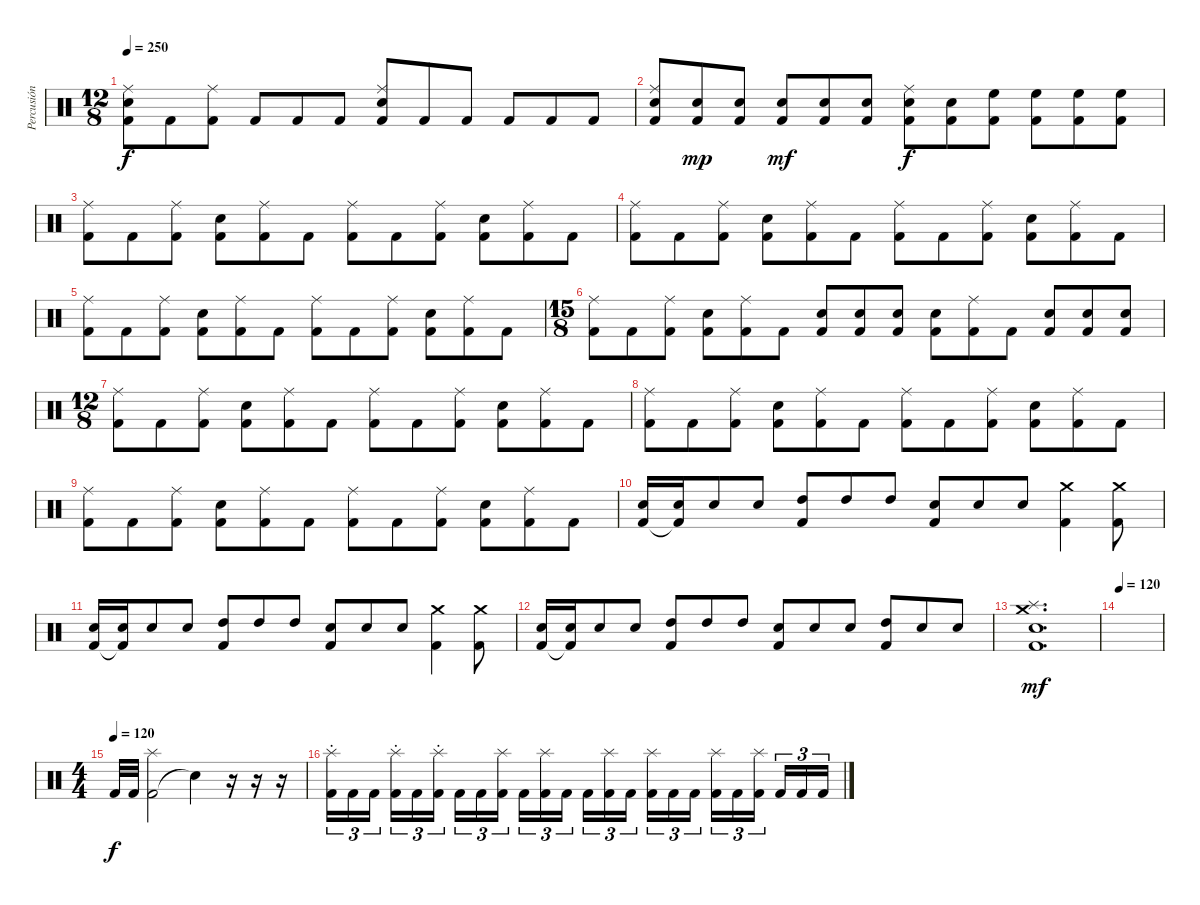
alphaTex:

\track ("Percusión" "Percusión") {instrument percussion}
\staff {score}
\articulation defaults
\ts (12 8)
\tempo 250
\clef neutral
\ks c
("Kick (hit) 2" "Ride (middle)" "Snare (hit) 2").8{dy f} "Kick (hit) 2".8 ("Kick (hit) 2" "Ride (middle)").8 "Kick (hit) 2".8 "Kick (hit) 2".8 "Kick (hit) 2".8 ("Kick (hit) 2" "Ride (middle)" "Snare (hit) 2").8 "Kick (hit) 2".8 "Kick (hit) 2".8 "Kick (hit) 2".8 "Kick (hit) 2".8 "Kick (hit) 2".8 |
("Kick (hit) 2" "Ride (middle)" "Snare (hit) 2").8 ("Kick (hit) 2" "Snare (hit) 2").8{dy mp} ("Kick (hit) 2" "Snare (hit) 2").8 ("Kick (hit) 2" "Snare (hit) 2").8{dy mf} ("Kick (hit) 2" "Snare (hit) 2").8 ("Kick (hit) 2" "Snare (hit) 2").8 ("Kick (hit) 2" "Ride (middle)" "Snare (hit) 2").8{dy f} ("Kick (hit) 2" "Snare (hit) 2").8 ("Kick (hit) 2" "High Floor Tom (hit)").8 ("Kick (hit) 2" "High Floor Tom (hit)").8 ("Kick (hit) 2" "High Floor Tom (hit)").8 ("Kick (hit) 2" "High Floor Tom (hit)").8 |
("Kick (hit) 2" "Ride (middle)").8 "Kick (hit) 2".8 ("Kick (hit) 2" "Ride (middle)").8 ("Kick (hit) 2" "Snare (hit) 2").8 ("Kick (hit) 2" "Ride (middle)").8 "Kick (hit) 2".8 ("Kick (hit) 2" "Ride (middle)").8 "Kick (hit) 2".8 ("Kick (hit) 2" "Ride (middle)").8 ("Kick (hit) 2" "Snare (hit) 2").8 ("Kick (hit) 2" "Ride (middle)").8 "Kick (hit) 2".8 |
("Kick (hit) 2" "Ride (middle)").8 "Kick (hit) 2".8 ("Kick (hit) 2" "Ride (middle)").8 ("Kick (hit) 2" "Snare (hit) 2").8 ("Kick (hit) 2" "Ride (middle)").8 "Kick (hit) 2".8 ("Kick (hit) 2" "Ride (middle)").8 "Kick (hit) 2".8 ("Kick (hit) 2" "Ride (middle)").8 ("Kick (hit) 2" "Snare (hit) 2").8 ("Kick (hit) 2" "Ride (middle)").8 "Kick (hit) 2".8 |
("Kick (hit) 2" "Ride (middle)").8 "Kick (hit) 2".8 ("Kick (hit) 2" "Ride (middle)").8 ("Kick (hit) 2" "Snare (hit) 2").8 ("Kick (hit) 2" "Ride (middle)").8 "Kick (hit) 2".8 ("Kick (hit) 2" "Ride (middle)").8 "Kick (hit) 2".8 ("Kick (hit) 2" "Ride (middle)").8 ("Kick (hit) 2" "Snare (hit) 2").8 ("Kick (hit) 2" "Ride (middle)").8 "Kick (hit) 2".8 |
\ts (15 8)
("Kick (hit) 2" "Ride (middle)").8 "Kick (hit) 2".8 ("Kick (hit) 2" "Ride (middle)").8 ("Kick (hit) 2" "Snare (hit) 2").8 ("Kick (hit) 2" "Ride (middle)").8 "Kick (hit) 2".8 ("Kick (hit) 2" "Snare (hit) 2").8 ("Kick (hit) 2" "Snare (hit) 2").8 ("Kick (hit) 2" "Snare (hit) 2").8 ("Kick (hit) 2" "Snare (hit) 2").8 ("Kick (hit) 2" "Ride (middle)").8 "Kick (hit) 2".8 ("Kick (hit) 2" "Snare (hit) 2").8 ("Kick (hit) 2" "Snare (hit) 2").8 ("Kick (hit) 2" "Snare (hit) 2").8 |
\ts (12 8)
("Kick (hit) 2" "Ride (middle)").8 "Kick (hit) 2".8 ("Kick (hit) 2" "Ride (middle)").8 ("Kick (hit) 2" "Snare (hit) 2").8 ("Kick (hit) 2" "Ride (middle)").8 "Kick (hit) 2".8 ("Kick (hit) 2" "Ride (middle)").8 "Kick (hit) 2".8 ("Kick (hit) 2" "Ride (middle)").8 ("Kick (hit) 2" "Snare (hit) 2").8 ("Kick (hit) 2" "Ride (middle)").8 "Kick (hit) 2".8 |
("Kick (hit) 2" "Ride (middle)").8 "Kick (hit) 2".8 ("Kick (hit) 2" "Ride (middle)").8 ("Kick (hit) 2" "Snare (hit) 2").8 ("Kick (hit) 2" "Ride (middle)").8 "Kick (hit) 2".8 ("Kick (hit) 2" "Ride (middle)").8 "Kick (hit) 2".8 ("Kick (hit) 2" "Ride (middle)").8 ("Kick (hit) 2" "Snare (hit) 2").8 ("Kick (hit) 2" "Ride (middle)").8 "Kick (hit) 2".8 |
("Kick (hit) 2" "Ride (middle)").8 "Kick (hit) 2".8 ("Kick (hit) 2" "Ride (middle)").8 ("Kick (hit) 2" "Snare (hit) 2").8 ("Kick (hit) 2" "Ride (middle)").8 "Kick (hit) 2".8 ("Kick (hit) 2" "Ride (middle)").8 "Kick (hit) 2".8 ("Kick (hit) 2" "Ride (middle)").8 ("Kick (hit) 2" "Snare (hit) 2").8 ("Kick (hit) 2" "Ride (middle)").8 "Kick (hit) 2".8 |
("Kick (hit) 2" "Snare (hit) 2").16 ("Kick (hit) 2"{t} "Snare (hit) 2").16 "Snare (hit) 2".8 "Snare (hit) 2".8 ("Kick (hit) 2" "High Tom (hit)").8 "High Tom (hit)".8 "High Tom (hit)".8 ("Kick (hit) 2" "Snare (hit) 2").8 "Snare (hit) 2".8 "Snare (hit) 2".8 ("Kick (hit) 2" "Crash medium (hit)").4 ("Kick (hit) 2" "Crash medium (hit)").8 |
("Kick (hit) 2" "Snare (hit) 2").16 ("Kick (hit) 2"{t} "Snare (hit) 2").16 "Snare (hit) 2".8 "Snare (hit) 2".8 ("Kick (hit) 2" "High Tom (hit)").8 "High Tom (hit)".8 "High Tom (hit)".8 ("Kick (hit) 2" "Snare (hit) 2").8 "Snare (hit) 2".8 "Snare (hit) 2".8 ("Kick (hit) 2" "Crash medium (hit)").4 ("Kick (hit) 2" "Crash medium (hit)").8 |
("Kick (hit) 2" "Snare (hit) 2").16 ("Kick (hit) 2"{t} "Snare (hit) 2").16 "Snare (hit) 2".8 "Snare (hit) 2".8 ("Kick (hit) 2" "High Tom (hit)").8 "High Tom (hit)".8 "High Tom (hit)".8 ("Kick (hit) 2" "Snare (hit) 2").8 "Snare (hit) 2".8 "Snare (hit) 2".8 ("Kick (hit) 2" "High Tom (hit)").8 "Snare (hit) 2".8 "Snare (hit) 2".8 |
("Splash (hit)" "Kick (hit) 2" "Snare (hit) 2" "Crash medium (hit)").1{d dy mf} |
\tempo 120
|
\ts (4 4)
\tempo (120)
"Kick (hit) 2".32{dy f} "Kick (hit) 2".32 ("Kick (hit) 2" "Splash (hit)").2 "Snare (hit)"{t}.4 r.16 r.16 r.16 |
("Kick (hit) 2" "Splash (hit)"{st}).16{tu (3 2)} "Kick (hit) 2".16{tu (3 2)} "Kick (hit) 2".16{tu (3 2) beam splitsecondary} ("Kick (hit) 2" "Splash (hit)"{st}).16{tu (3 2)} "Kick (hit) 2".16{tu (3 2)} ("Kick (hit) 2" "Splash (hit)"{st}).16{tu (3 2)} "Kick (hit) 2".16{tu (3 2)} "Kick (hit) 2".16{tu (3 2)} ("Kick (hit) 2" "Splash (hit)").16{tu (3 2) beam splitsecondary} "Kick (hit) 2".16{tu (3 2)} ("Kick (hit) 2" "Splash (hit)").16{tu (3 2)} "Kick (hit) 2".16{tu (3 2)} "Kick (hit) 2".16{tu (3 2)} ("Kick (hit) 2" "Splash (hit)").16{tu (3 2)} "Kick (hit) 2".16{tu (3 2) beam splitsecondary} ("Kick (hit) 2" "Splash (hit)").16{tu (3 2)} "Kick (hit) 2".16{tu (3 2)} "Kick (hit) 2".16{tu (3 2)} ("Kick (hit) 2" "Splash (hit)").16{tu (3 2)} "Kick (hit) 2".16{tu (3 2)} ("Kick (hit) 2" "Splash (hit)").16{tu (3 2) beam splitsecondary} "Kick (hit) 2".16{tu (3 2)} "Kick (hit) 2".16{tu (3 2)} "Kick (hit) 2".16{tu (3 2)}
